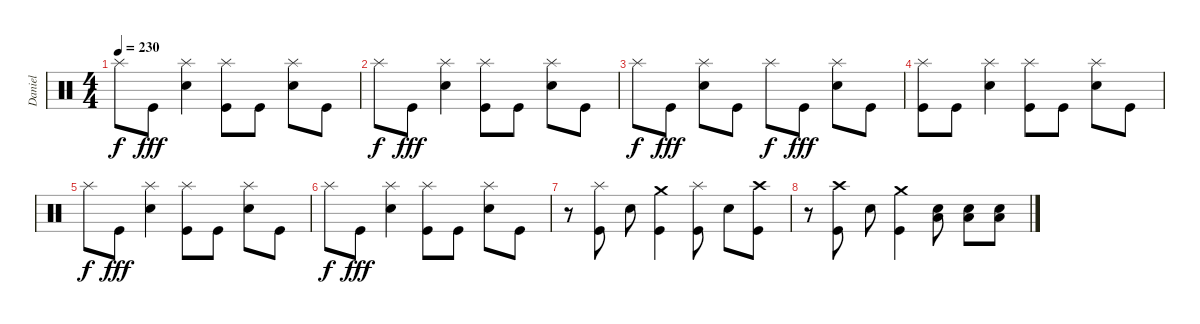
\track ("Daniel" "Daniel") {instrument percussion}
\staff {score}
\articulation defaults
\ts (4 4)
\tempo 230
\clef neutral
\ks c "Splash (hit)".8{dy f} "Kick (hit)".8{dy fff}
("Electric Snare (hit)" "Splash (hit)").4 ("Kick (hit)" "Splash (hit)").8 "Kick (hit)".8 ("Electric Snare (hit)" "Splash (hit)").8 "Kick (hit)".8 |
"Splash (hit)".8{dy f} "Kick (hit)".8{dy fff} ("Electric Snare (hit)" "Splash (hit)").4 ("Kick (hit)" "Splash (hit)").8 "Kick (hit)".8 ("Electric Snare (hit)" "Splash (hit)").8 "Kick (hit)".8 |
"Splash (hit)".8{dy f} "Kick (hit)".8{dy fff} ("Electric Snare (hit)" "Splash (hit)").8 "Kick (hit)".8 "Splash (hit)".8{dy f} "Kick (hit)".8{dy fff} ("Electric Snare (hit)" "Splash (hit)").8 "Kick (hit)".8 |
("Kick (hit)" "Splash (hit)").8 "Kick (hit)".8 ("Electric Snare (hit)" "Splash (hit)").4 ("Kick (hit)" "Splash (hit)").8 "Kick (hit)".8 ("Electric Snare (hit)" "Splash (hit)").8 "Kick (hit)".8 |
"Splash (hit)".8{dy f} "Kick (hit)".8{dy fff} ("Electric Snare (hit)" "Splash (hit)").4 ("Kick (hit)" "Splash (hit)").8 "Kick (hit)".8 ("Electric Snare (hit)" "Splash (hit)").8 "Kick (hit)".8 |
"Splash (hit)".8{dy f} "Kick (hit)".8{dy fff} ("Electric Snare (hit)" "Splash (hit)").4 ("Kick (hit)" "Splash (hit)").8 "Kick (hit)".8 ("Electric Snare (hit)" "Splash (hit)").8 "Kick (hit)".8 |
r.8 ("Kick (hit)" "Splash (hit)").8 "Electric Snare (hit)".8 ("Kick (hit)" "Crash medium (hit)").4 ("Kick (hit)" "Splash (hit)").8 "Electric Snare (hit)".8 ("Kick (hit)" "Crash high (hit)").8 |
r.8 ("Kick (hit)" "Crash high (hit)").8 "Electric Snare (hit)".8 ("Kick (hit)" "Crash medium (hit)").4 ("Electric Snare (hit)" "Low Floor Tom (hit)").8 ("Electric Snare (hit)" "Low Floor Tom (hit)").8 ("Electric Snare (hit)" "Low Floor Tom (hit)").8
